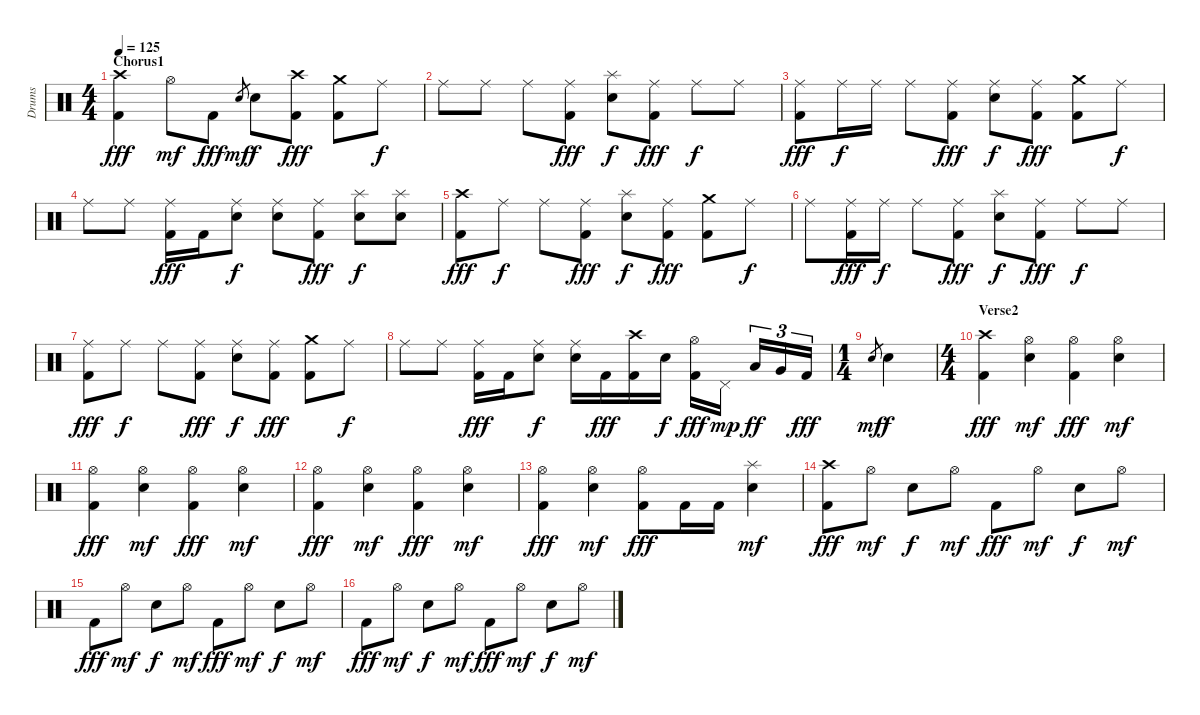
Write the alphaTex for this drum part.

\track ("Drums" "Drums") {instrument percussion}
\staff {score}
\articulation defaults
\ts (4 4)
\section ("" "Chorus1")
\tempo 125
\clef neutral
\ks c
("Crash high (hit)" "Kick (hit) 2").4{dy fff} "Hi-Hat (open)".8{dy mf} "Kick (hit) 2".8{dy fff} "Electric Snare (hit)".8{gr dy mf} "Electric Snare (hit)".8{dy f} ("Crash high (hit)" "Kick (hit) 2").8{dy fff} ("Crash medium (hit)" "Kick (hit) 2").8 "Ride (middle)".8{dy f} |
"Ride (middle)".8 "Ride (middle)".8 "Ride (middle)".8 ("Ride (middle)" "Kick (hit) 2").8{dy fff} ("Splash (hit)" "Electric Snare (hit)").8{dy f} ("Ride (middle)" "Kick (hit) 2").8{dy fff} "Ride (middle)".8{dy f} "Ride (middle)".8 |
("Ride (middle)" "Kick (hit) 2").8{dy fff} "Ride (middle)".16{dy f} "Ride (middle)".16 "Ride (middle)".8 ("Ride (middle)" "Kick (hit) 2").8{dy fff} ("Ride (middle)" "Electric Snare (hit)").8{dy f} ("Ride (middle)" "Kick (hit) 2").8{dy fff} ("Crash medium (hit)" "Kick (hit) 2").8 "Ride (middle)".8{dy f} |
"Ride (middle)".8 "Ride (middle)".8 ("Ride (middle)" "Kick (hit) 2").16{dy fff} "Kick (hit) 2".16 ("Ride (middle)" "Electric Snare (hit)").8{dy f} ("Ride (middle)" "Electric Snare (hit)").8 ("Ride (middle)" "Kick (hit) 2").8{dy fff} ("Splash (hit)" "Electric Snare (hit)").8{dy f} ("Splash (hit)" "Electric Snare (hit)").8 |
("Crash high (hit)" "Kick (hit) 2").8{dy fff} "Ride (middle)".8{dy f} "Ride (middle)".8 ("Ride (middle)" "Kick (hit) 2").8{dy fff} ("Splash (hit)" "Electric Snare (hit)").8{dy f} ("Ride (middle)" "Kick (hit) 2").8{dy fff} ("Crash medium (hit)" "Kick (hit) 2").8 "Ride (middle)".8{dy f} |
"Ride (middle)".8 ("Ride (middle)" "Kick (hit) 2").16{dy fff} "Ride (middle)".16{dy f} "Ride (middle)".8 ("Ride (middle)" "Kick (hit) 2").8{dy fff} ("Splash (hit)" "Electric Snare (hit)").8{dy f} ("Ride (middle)" "Kick (hit) 2").8{dy fff} "Ride (middle)".8{dy f} "Ride (middle)".8 |
("Ride (middle)" "Kick (hit) 2").8{dy fff} "Ride (middle)".8{dy f} "Ride (middle)".8 ("Ride (middle)" "Kick (hit) 2").8{dy fff} ("Ride (middle)" "Electric Snare (hit)").8{dy f} ("Ride (middle)" "Kick (hit) 2").8{dy fff} ("Crash medium (hit)" "Kick (hit) 2").8 "Ride (middle)".8{dy f} |
"Ride (middle)".8 "Ride (middle)".8 ("Ride (middle)" "Kick (hit) 2").16{dy fff} "Kick (hit) 2".16 ("Ride (middle)" "Electric Snare (hit)").8{dy f} ("Ride (middle)" "Electric Snare (hit)").16 "Kick (hit) 2".16{dy fff} ("Crash high (hit)" "Kick (hit) 2").16 "Electric Snare (hit)".16{dy f} ("Hi-Hat (open)" "Kick (hit) 2").16{dy fff} "Pedal Hi-Hat (hit)".16{dy mp} "Low Tom (hit)".16{tu (3 2) dy ff} "Very Low Tom (hit)".16{tu (3 2)} "Kick (hit) 2".16{tu (3 2) dy fff} |
\ts (1 4)
"Electric Snare (hit)".8{gr dy mf} "Electric Snare (hit)".4{dy f} |
\ts (4 4)
\section ("" "Verse2")
("Crash high (hit)" "Kick (hit) 2").4{dy fff} ("Hi-Hat (open)" "Electric Snare (hit)").4{dy mf} ("Hi-Hat (open)" "Kick (hit) 2").4{dy fff} ("Hi-Hat (open)" "Electric Snare (hit)").4{dy mf} |
("Hi-Hat (open)" "Kick (hit) 2").4{dy fff} ("Hi-Hat (open)" "Electric Snare (hit)").4{dy mf} ("Hi-Hat (open)" "Kick (hit) 2").4{dy fff} ("Hi-Hat (open)" "Electric Snare (hit)").4{dy mf} |
("Hi-Hat (open)" "Kick (hit) 2").4{dy fff} ("Hi-Hat (open)" "Electric Snare (hit)").4{dy mf} ("Hi-Hat (open)" "Kick (hit) 2").4{dy fff} ("Hi-Hat (open)" "Electric Snare (hit)").4{dy mf} |
("Hi-Hat (open)" "Kick (hit) 2").4{dy fff} ("Hi-Hat (open)" "Electric Snare (hit)").4{dy mf} ("Hi-Hat (open)" "Kick (hit) 2").8{dy fff} "Kick (hit) 2".16 "Kick (hit) 2".16 ("Splash (hit)" "Electric Snare (hit)").4{dy mf} |
("Crash high (hit)" "Kick (hit) 2").8{dy fff} "Hi-Hat (open)".8{dy mf} "Electric Snare (hit)".8{dy f} "Hi-Hat (open)".8{dy mf} "Kick (hit) 2".8{dy fff} "Hi-Hat (open)".8{dy mf} "Electric Snare (hit)".8{dy f} "Hi-Hat (open)".8{dy mf} |
"Kick (hit) 2".8{dy fff} "Hi-Hat (open)".8{dy mf} "Electric Snare (hit)".8{dy f} "Hi-Hat (open)".8{dy mf} "Kick (hit) 2".8{dy fff} "Hi-Hat (open)".8{dy mf} "Electric Snare (hit)".8{dy f} "Hi-Hat (open)".8{dy mf} |
"Kick (hit) 2".8{dy fff} "Hi-Hat (open)".8{dy mf} "Electric Snare (hit)".8{dy f} "Hi-Hat (open)".8{dy mf} "Kick (hit) 2".8{dy fff} "Hi-Hat (open)".8{dy mf} "Electric Snare (hit)".8{dy f} "Hi-Hat (open)".8{dy mf}
